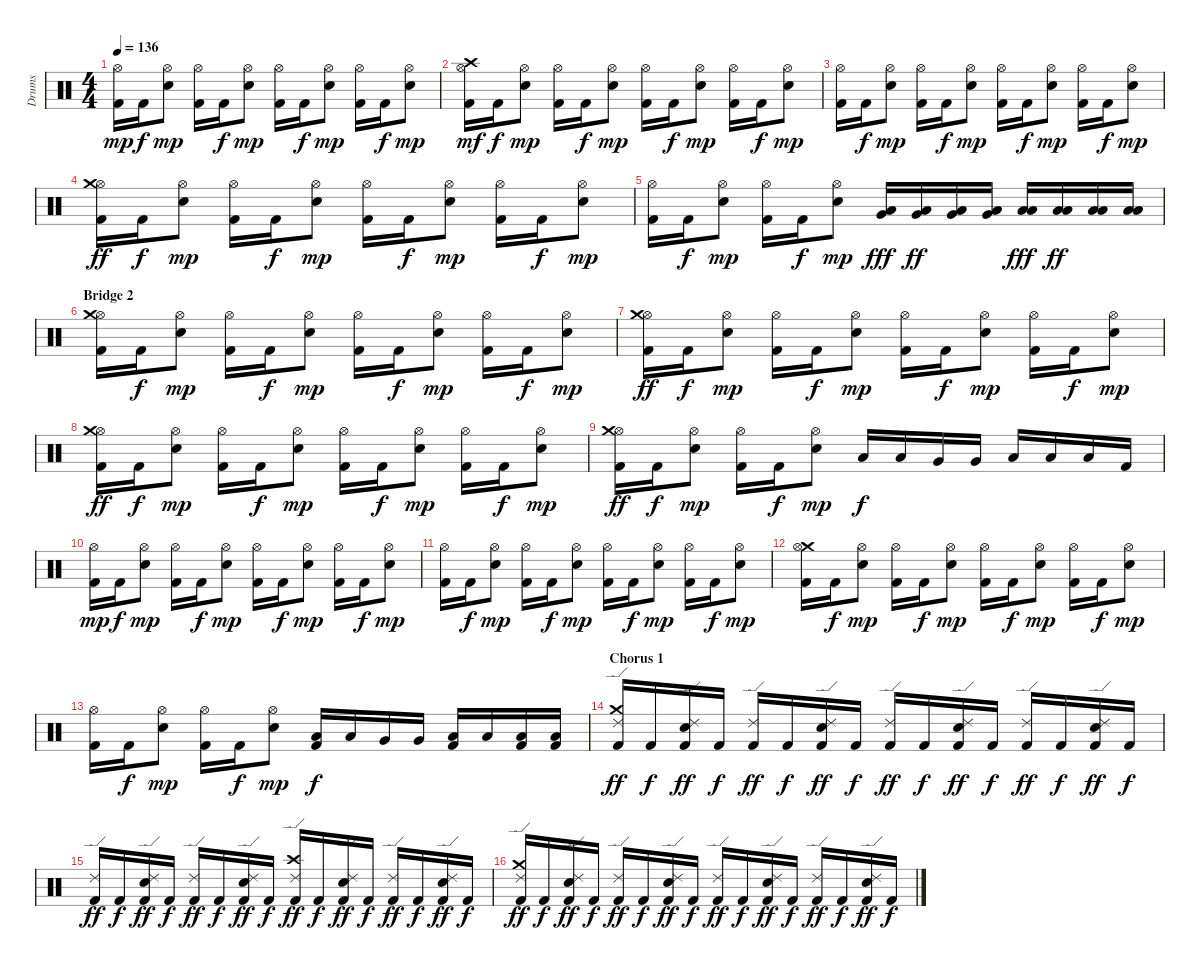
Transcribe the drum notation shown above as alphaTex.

\track ("Drums" "Drums") {instrument percussion}
\staff {score}
\articulation defaults
\ts (4 4)
\tempo 136
\clef neutral
\ks c
("Kick (hit) 2" "Hi-Hat (open)").16{dy mp} "Kick (hit) 2".16{dy f} ("Hi-Hat (open)" "Snare (hit) 2").8{dy mp} ("Kick (hit) 2" "Hi-Hat (open)").16 "Kick (hit) 2".16{dy f} ("Hi-Hat (open)" "Snare (hit) 2").8{dy mp} ("Kick (hit) 2" "Hi-Hat (open)").16 "Kick (hit) 2".16{dy f} ("Hi-Hat (open)" "Snare (hit) 2").8{dy mp} ("Kick (hit) 2" "Hi-Hat (open)").16 "Kick (hit) 2".16{dy f} ("Hi-Hat (open)" "Snare (hit) 2").8{dy mp} |
("Kick (hit) 2" "Hi-Hat (open)" "Crash high (hit)").16{dy mf} "Kick (hit) 2".16{dy f} ("Hi-Hat (open)" "Snare (hit) 2").8{dy mp} ("Kick (hit) 2" "Hi-Hat (open)").16 "Kick (hit) 2".16{dy f} ("Hi-Hat (open)" "Snare (hit) 2").8{dy mp} ("Kick (hit) 2" "Hi-Hat (open)").16 "Kick (hit) 2".16{dy f} ("Hi-Hat (open)" "Snare (hit) 2").8{dy mp} ("Kick (hit) 2" "Hi-Hat (open)").16 "Kick (hit) 2".16{dy f} ("Hi-Hat (open)" "Snare (hit) 2").8{dy mp} |
("Kick (hit) 2" "Hi-Hat (open)").16 "Kick (hit) 2".16{dy f} ("Hi-Hat (open)" "Snare (hit) 2").8{dy mp} ("Kick (hit) 2" "Hi-Hat (open)").16 "Kick (hit) 2".16{dy f} ("Hi-Hat (open)" "Snare (hit) 2").8{dy mp} ("Kick (hit) 2" "Hi-Hat (open)").16 "Kick (hit) 2".16{dy f} ("Hi-Hat (open)" "Snare (hit) 2").8{dy mp} ("Kick (hit) 2" "Hi-Hat (open)").16 "Kick (hit) 2".16{dy f} ("Hi-Hat (open)" "Snare (hit) 2").8{dy mp} |
("Kick (hit) 2" "Hi-Hat (open)" "Crash medium (hit)").16{dy ff} "Kick (hit) 2".16{dy f} ("Hi-Hat (open)" "Snare (hit) 2").8{dy mp} ("Kick (hit) 2" "Hi-Hat (open)").16 "Kick (hit) 2".16{dy f} ("Hi-Hat (open)" "Snare (hit) 2").8{dy mp} ("Kick (hit) 2" "Hi-Hat (open)").16 "Kick (hit) 2".16{dy f} ("Hi-Hat (open)" "Snare (hit) 2").8{dy mp} ("Kick (hit) 2" "Hi-Hat (open)").16 "Kick (hit) 2".16{dy f} ("Hi-Hat (open)" "Snare (hit) 2").8{dy mp} |
("Kick (hit) 2" "Hi-Hat (open)").16 "Kick (hit) 2".16{dy f} ("Hi-Hat (open)" "Snare (hit) 2").8{dy mp} ("Kick (hit) 2" "Hi-Hat (open)").16 "Kick (hit) 2".16{dy f} ("Hi-Hat (open)" "Snare (hit) 2").8{dy mp} ("Low Tom (hit)" "Very Low Tom (hit)").16{dy fff} ("Low Tom (hit)" "Very Low Tom (hit)").16{dy ff} ("Low Tom (hit)" "Very Low Tom (hit)").16 ("Low Tom (hit)" "Very Low Tom (hit)").16 ("Low Tom (hit)" "Low Floor Tom (hit)").16{dy fff} ("Low Tom (hit)" "Low Floor Tom (hit)").16{dy ff} ("Low Tom (hit)" "Low Floor Tom (hit)").16 ("Low Tom (hit)" "Low Floor Tom (hit)").16 |
\section ("" "Bridge 2")
("Kick (hit) 2" "Hi-Hat (open)" "Crash medium (hit)").16 "Kick (hit) 2".16{dy f} ("Hi-Hat (open)" "Snare (hit) 2").8{dy mp} ("Kick (hit) 2" "Hi-Hat (open)").16 "Kick (hit) 2".16{dy f} ("Hi-Hat (open)" "Snare (hit) 2").8{dy mp} ("Kick (hit) 2" "Hi-Hat (open)").16 "Kick (hit) 2".16{dy f} ("Hi-Hat (open)" "Snare (hit) 2").8{dy mp} ("Kick (hit) 2" "Hi-Hat (open)").16 "Kick (hit) 2".16{dy f} ("Hi-Hat (open)" "Snare (hit) 2").8{dy mp} |
("Kick (hit) 2" "Hi-Hat (open)" "Crash medium (hit)").16{dy ff} "Kick (hit) 2".16{dy f} ("Hi-Hat (open)" "Snare (hit) 2").8{dy mp} ("Kick (hit) 2" "Hi-Hat (open)").16 "Kick (hit) 2".16{dy f} ("Hi-Hat (open)" "Snare (hit) 2").8{dy mp} ("Kick (hit) 2" "Hi-Hat (open)").16 "Kick (hit) 2".16{dy f} ("Hi-Hat (open)" "Snare (hit) 2").8{dy mp} ("Kick (hit) 2" "Hi-Hat (open)").16 "Kick (hit) 2".16{dy f} ("Hi-Hat (open)" "Snare (hit) 2").8{dy mp} |
("Kick (hit) 2" "Hi-Hat (open)" "Crash medium (hit)").16{dy ff} "Kick (hit) 2".16{dy f} ("Hi-Hat (open)" "Snare (hit) 2").8{dy mp} ("Kick (hit) 2" "Hi-Hat (open)").16 "Kick (hit) 2".16{dy f} ("Hi-Hat (open)" "Snare (hit) 2").8{dy mp} ("Kick (hit) 2" "Hi-Hat (open)").16 "Kick (hit) 2".16{dy f} ("Hi-Hat (open)" "Snare (hit) 2").8{dy mp} ("Kick (hit) 2" "Hi-Hat (open)").16 "Kick (hit) 2".16{dy f} ("Hi-Hat (open)" "Snare (hit) 2").8{dy mp} |
("Kick (hit) 2" "Hi-Hat (open)" "Crash medium (hit)").16{dy ff} "Kick (hit) 2".16{dy f} ("Hi-Hat (open)" "Snare (hit) 2").8{dy mp} ("Kick (hit) 2" "Hi-Hat (open)").16 "Kick (hit) 2".16{dy f} ("Hi-Hat (open)" "Snare (hit) 2").8{dy mp} "Low Tom (hit)".16{dy f} "Low Tom (hit)".16 "Very Low Tom (hit)".16 "Very Low Tom (hit)".16 "Low Floor Tom (hit)".16 "Low Floor Tom (hit)".16 "Low Floor Tom (hit)".16 "Kick (hit) 2".16 |
("Hi-Hat (open)" "Kick (hit) 2").16{dy mp} "Kick (hit) 2".16{dy f} ("Hi-Hat (open)" "Snare (hit) 2").8{dy mp} ("Hi-Hat (open)" "Kick (hit) 2").16 "Kick (hit) 2".16{dy f} ("Hi-Hat (open)" "Snare (hit) 2").8{dy mp} ("Hi-Hat (open)" "Kick (hit) 2").16 "Kick (hit) 2".16{dy f} ("Hi-Hat (open)" "Snare (hit) 2").8{dy mp} ("Hi-Hat (open)" "Kick (hit) 2").16 "Kick (hit) 2".16{dy f} ("Hi-Hat (open)" "Snare (hit) 2").8{dy mp} |
("Hi-Hat (open)" "Kick (hit) 2").16 "Kick (hit) 2".16{dy f} ("Hi-Hat (open)" "Snare (hit) 2").8{dy mp} ("Hi-Hat (open)" "Kick (hit) 2").16 "Kick (hit) 2".16{dy f} ("Hi-Hat (open)" "Snare (hit) 2").8{dy mp} ("Hi-Hat (open)" "Kick (hit) 2").16 "Kick (hit) 2".16{dy f} ("Hi-Hat (open)" "Snare (hit) 2").8{dy mp} ("Hi-Hat (open)" "Kick (hit) 2").16 "Kick (hit) 2".16{dy f} ("Hi-Hat (open)" "Snare (hit) 2").8{dy mp} |
("Crash medium (hit)" "Hi-Hat (open)" "Kick (hit) 2").16 "Kick (hit) 2".16{dy f} ("Hi-Hat (open)" "Snare (hit) 2").8{dy mp} ("Hi-Hat (open)" "Kick (hit) 2").16 "Kick (hit) 2".16{dy f} ("Hi-Hat (open)" "Snare (hit) 2").8{dy mp} ("Hi-Hat (open)" "Kick (hit) 2").16 "Kick (hit) 2".16{dy f} ("Hi-Hat (open)" "Snare (hit) 2").8{dy mp} ("Hi-Hat (open)" "Kick (hit) 2").16 "Kick (hit) 2".16{dy f} ("Hi-Hat (open)" "Snare (hit) 2").8{dy mp} |
("Hi-Hat (open)" "Kick (hit) 2").16 "Kick (hit) 2".16{dy f} ("Hi-Hat (open)" "Snare (hit) 2").8{dy mp} ("Hi-Hat (open)" "Kick (hit) 2").16 "Kick (hit) 2".16{dy f} ("Hi-Hat (open)" "Snare (hit) 2").8{dy mp} ("Low Tom (hit)" "Kick (hit) 2").16{dy f} "Low Tom (hit)".16 "Very Low Tom (hit)".16 "Very Low Tom (hit)".16 ("Low Floor Tom (hit)" "Kick (hit) 2").16 "Low Floor Tom (hit)".16 ("Low Floor Tom (hit)" "Kick (hit) 2").16 ("Low Floor Tom (hit)" "Kick (hit) 2").16 |
\section ("" "Chorus 1")
("Crash medium (hit)" "Ride (edge) 2" "Kick (hit) 2").16{dy ff} "Kick (hit) 2".16{dy f} ("Ride (edge) 2" "Snare (hit) 2" "Kick (hit) 2").16{dy ff} "Kick (hit) 2".16{dy f} ("Ride (edge) 2" "Kick (hit) 2").16{dy ff} "Kick (hit) 2".16{dy f} ("Ride (edge) 2" "Snare (hit) 2" "Kick (hit) 2").16{dy ff} "Kick (hit) 2".16{dy f} ("Ride (edge) 2" "Kick (hit) 2").16{dy ff} "Kick (hit) 2".16{dy f} ("Ride (edge) 2" "Snare (hit) 2" "Kick (hit) 2").16{dy ff} "Kick (hit) 2".16{dy f} ("Ride (edge) 2" "Kick (hit) 2").16{dy ff} "Kick (hit) 2".16{dy f} ("Ride (edge) 2" "Snare (hit) 2" "Kick (hit) 2").16{dy ff} "Kick (hit) 2".16{dy f} |
("Ride (edge) 2" "Kick (hit) 2").16{dy ff} "Kick (hit) 2".16{dy f} ("Ride (edge) 2" "Snare (hit) 2" "Kick (hit) 2").16{dy ff} "Kick (hit) 2".16{dy f} ("Ride (edge) 2" "Kick (hit) 2").16{dy ff} "Kick (hit) 2".16{dy f} ("Ride (edge) 2" "Snare (hit) 2" "Kick (hit) 2").16{dy ff} "Kick (hit) 2".16{dy f} ("Crash high (hit)" "Ride (edge) 2" "Kick (hit) 2").16{dy ff} "Kick (hit) 2".16{dy f} ("Ride (edge) 2" "Snare (hit) 2" "Kick (hit) 2").16{dy ff} "Kick (hit) 2".16{dy f} ("Ride (edge) 2" "Kick (hit) 2").16{dy ff} "Kick (hit) 2".16{dy f} ("Ride (edge) 2" "Snare (hit) 2" "Kick (hit) 2").16{dy ff} "Kick (hit) 2".16{dy f} |
("Crash medium (hit)" "Ride (edge) 2" "Kick (hit) 2").16{dy ff} "Kick (hit) 2".16{dy f} ("Ride (edge) 2" "Snare (hit) 2" "Kick (hit) 2").16{dy ff} "Kick (hit) 2".16{dy f} ("Ride (edge) 2" "Kick (hit) 2").16{dy ff} "Kick (hit) 2".16{dy f} ("Ride (edge) 2" "Snare (hit) 2" "Kick (hit) 2").16{dy ff} "Kick (hit) 2".16{dy f} ("Ride (edge) 2" "Kick (hit) 2").16{dy ff} "Kick (hit) 2".16{dy f} ("Ride (edge) 2" "Snare (hit) 2" "Kick (hit) 2").16{dy ff} "Kick (hit) 2".16{dy f} ("Ride (edge) 2" "Kick (hit) 2").16{dy ff} "Kick (hit) 2".16{dy f} ("Ride (edge) 2" "Snare (hit) 2" "Kick (hit) 2").16{dy ff} "Kick (hit) 2".16{dy f}
